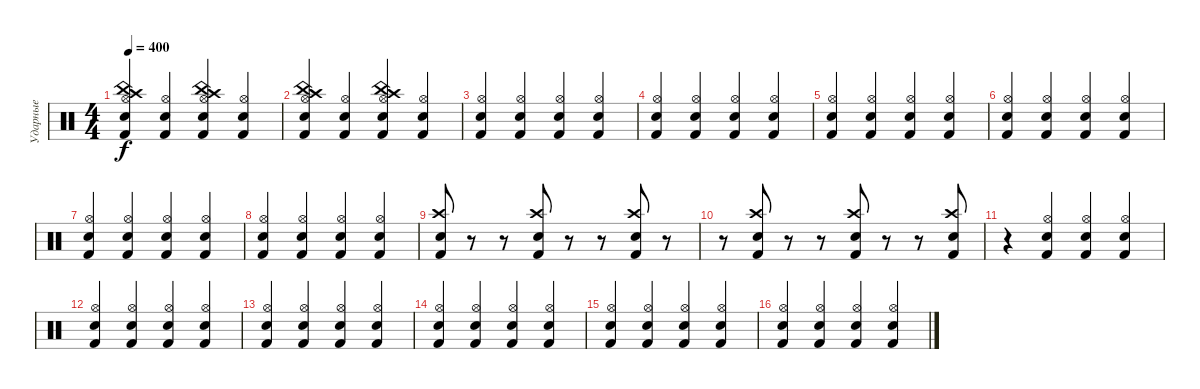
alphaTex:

\track ("Ударные" "Ударные") {instrument percussion}
\staff {score}
\articulation defaults
\ts (4 4)
\tempo 400
\clef neutral
\ks c
("Kick (hit) 2" "Hi-Hat (open)" "Crash high (hit)" "China (hit)" "Electric Snare (hit)").4{dy f} ("Hi-Hat (open)" "Kick (hit) 2" "Electric Snare (hit)").4 ("Electric Snare (hit)" "Kick (hit) 2" "Hi-Hat (open)" "Crash high (hit)" "China (hit)").4 ("Hi-Hat (open)" "Kick (hit) 2" "Electric Snare (hit)").4 |
("Kick (hit) 2" "Hi-Hat (open)" "Crash high (hit)" "China (hit)" "Electric Snare (hit)").4 ("Hi-Hat (open)" "Kick (hit) 2" "Electric Snare (hit)").4 ("Electric Snare (hit)" "Kick (hit) 2" "Hi-Hat (open)" "Crash high (hit)" "China (hit)").4 ("Hi-Hat (open)" "Kick (hit) 2" "Electric Snare (hit)").4 |
("Kick (hit) 2" "Hi-Hat (open)" "Electric Snare (hit)").4 ("Hi-Hat (open)" "Kick (hit) 2" "Electric Snare (hit)").4 ("Electric Snare (hit)" "Kick (hit) 2" "Hi-Hat (open)").4 ("Hi-Hat (open)" "Kick (hit) 2" "Electric Snare (hit)").4 |
("Kick (hit) 2" "Hi-Hat (open)" "Electric Snare (hit)").4 ("Hi-Hat (open)" "Kick (hit) 2" "Electric Snare (hit)").4 ("Electric Snare (hit)" "Kick (hit) 2" "Hi-Hat (open)").4 ("Hi-Hat (open)" "Kick (hit) 2" "Electric Snare (hit)").4 |
("Kick (hit) 2" "Hi-Hat (open)" "Electric Snare (hit)").4 ("Hi-Hat (open)" "Kick (hit) 2" "Electric Snare (hit)").4 ("Electric Snare (hit)" "Kick (hit) 2" "Hi-Hat (open)").4 ("Hi-Hat (open)" "Kick (hit) 2" "Electric Snare (hit)").4 |
("Kick (hit) 2" "Hi-Hat (open)" "Electric Snare (hit)").4 ("Hi-Hat (open)" "Kick (hit) 2" "Electric Snare (hit)").4 ("Electric Snare (hit)" "Kick (hit) 2" "Hi-Hat (open)").4 ("Hi-Hat (open)" "Kick (hit) 2" "Electric Snare (hit)").4 |
("Kick (hit) 2" "Hi-Hat (open)" "Electric Snare (hit)").4 ("Hi-Hat (open)" "Kick (hit) 2" "Electric Snare (hit)").4 ("Electric Snare (hit)" "Kick (hit) 2" "Hi-Hat (open)").4 ("Hi-Hat (open)" "Kick (hit) 2" "Electric Snare (hit)").4 |
("Kick (hit) 2" "Hi-Hat (open)" "Electric Snare (hit)").4 ("Hi-Hat (open)" "Kick (hit) 2" "Electric Snare (hit)").4 ("Electric Snare (hit)" "Kick (hit) 2" "Hi-Hat (open)").4 ("Hi-Hat (open)" "Kick (hit) 2" "Electric Snare (hit)").4 |
("Kick (hit) 2" "Electric Snare (hit)" "Crash high (hit)").8 r.8 r.8 ("Kick (hit) 2" "Electric Snare (hit)" "Crash high (hit)").8 r.8 r.8 ("Crash high (hit)" "Kick (hit) 2" "Electric Snare (hit)").8 r.8 |
r.8 ("Electric Snare (hit)" "Kick (hit) 2" "Crash high (hit)").8 r.8 r.8 ("Crash high (hit)" "Kick (hit) 2" "Electric Snare (hit)").8 r.8 r.8 ("Electric Snare (hit)" "Kick (hit) 2" "Crash high (hit)").8 |
r.4 ("Kick (hit) 2" "Electric Snare (hit)" "Hi-Hat (open)").4 ("Hi-Hat (open)" "Kick (hit) 2" "Electric Snare (hit)").4 ("Electric Snare (hit)" "Kick (hit) 2" "Hi-Hat (open)").4 |
("Electric Snare (hit)" "Kick (hit) 2" "Hi-Hat (open)").4 ("Kick (hit) 2" "Electric Snare (hit)" "Hi-Hat (open)").4 ("Hi-Hat (open)" "Kick (hit) 2" "Electric Snare (hit)").4 ("Electric Snare (hit)" "Kick (hit) 2" "Hi-Hat (open)").4 |
("Electric Snare (hit)" "Kick (hit) 2" "Hi-Hat (open)").4 ("Kick (hit) 2" "Electric Snare (hit)" "Hi-Hat (open)").4 ("Hi-Hat (open)" "Kick (hit) 2" "Electric Snare (hit)").4 ("Electric Snare (hit)" "Kick (hit) 2" "Hi-Hat (open)").4 |
("Electric Snare (hit)" "Kick (hit) 2" "Hi-Hat (open)").4 ("Kick (hit) 2" "Electric Snare (hit)" "Hi-Hat (open)").4 ("Hi-Hat (open)" "Kick (hit) 2" "Electric Snare (hit)").4 ("Electric Snare (hit)" "Kick (hit) 2" "Hi-Hat (open)").4 |
("Electric Snare (hit)" "Kick (hit) 2" "Hi-Hat (open)").4 ("Kick (hit) 2" "Electric Snare (hit)" "Hi-Hat (open)").4 ("Hi-Hat (open)" "Kick (hit) 2" "Electric Snare (hit)").4 ("Electric Snare (hit)" "Kick (hit) 2" "Hi-Hat (open)").4 |
("Electric Snare (hit)" "Kick (hit) 2" "Hi-Hat (open)").4 ("Kick (hit) 2" "Electric Snare (hit)" "Hi-Hat (open)").4 ("Hi-Hat (open)" "Kick (hit) 2" "Electric Snare (hit)").4 ("Electric Snare (hit)" "Kick (hit) 2" "Hi-Hat (open)").4
